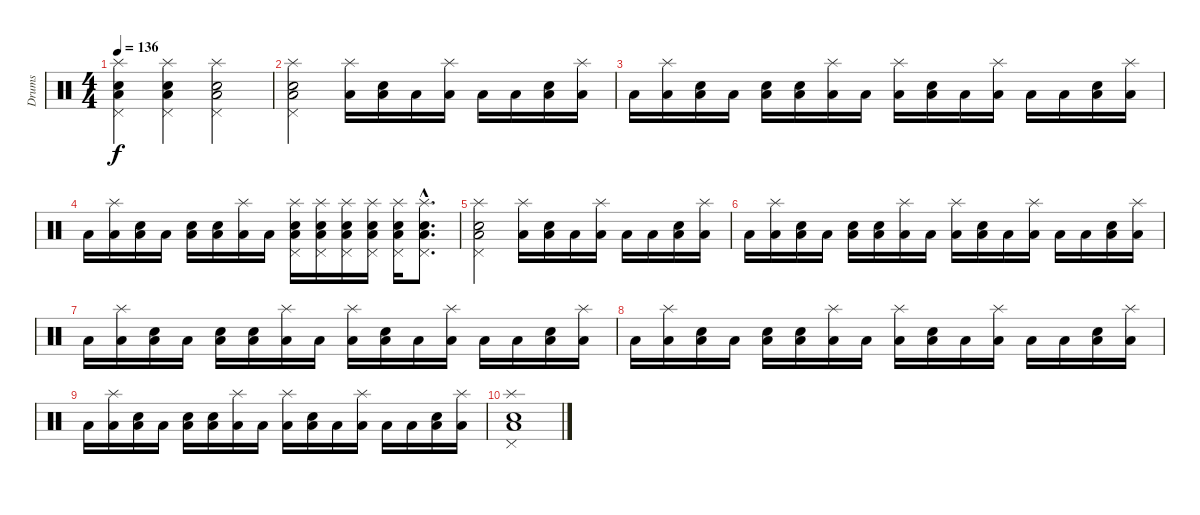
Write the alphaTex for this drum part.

\track ("Drums" "Drums") {instrument percussion}
\staff {score}
\articulation defaults
\ts (4 4)
\tempo 136
\clef neutral
\ks c
("Electric Snare (hit)" "Low Floor Tom (hit)" "Pedal Hi-Hat (hit)" "Splash (hit)").4{dy f} ("Electric Snare (hit)" "Low Floor Tom (hit)" "Pedal Hi-Hat (hit)" "Splash (hit)").4 ("Electric Snare (hit)" "Low Floor Tom (hit)" "Pedal Hi-Hat (hit)" "Splash (hit)").2 |
("Electric Snare (hit)" "Low Floor Tom (hit)" "Pedal Hi-Hat (hit)" "Splash (hit)").2 ("Low Floor Tom (hit)" "Splash (hit)").16 ("Electric Snare (hit)" "Low Floor Tom (hit)").16 "Low Floor Tom (hit)".16 ("Low Floor Tom (hit)" "Splash (hit)").16 "Low Floor Tom (hit)".16 "Low Floor Tom (hit)".16 ("Electric Snare (hit)" "Low Floor Tom (hit)").16 ("Low Floor Tom (hit)" "Splash (hit)").16 |
"Low Floor Tom (hit)".16 ("Low Floor Tom (hit)" "Splash (hit)").16 ("Electric Snare (hit)" "Low Floor Tom (hit)").16 "Low Floor Tom (hit)".16 ("Electric Snare (hit)" "Low Floor Tom (hit)").16 ("Electric Snare (hit)" "Low Floor Tom (hit)").16 ("Low Floor Tom (hit)" "Splash (hit)").16 "Low Floor Tom (hit)".16 ("Low Floor Tom (hit)" "Splash (hit)").16 ("Electric Snare (hit)" "Low Floor Tom (hit)").16 "Low Floor Tom (hit)".16 ("Low Floor Tom (hit)" "Splash (hit)").16 "Low Floor Tom (hit)".16 "Low Floor Tom (hit)".16 ("Electric Snare (hit)" "Low Floor Tom (hit)").16 ("Low Floor Tom (hit)" "Splash (hit)").16 |
"Low Floor Tom (hit)".16 ("Low Floor Tom (hit)" "Splash (hit)").16 ("Electric Snare (hit)" "Low Floor Tom (hit)").16 "Low Floor Tom (hit)".16 ("Electric Snare (hit)" "Low Floor Tom (hit)").16 ("Electric Snare (hit)" "Low Floor Tom (hit)").16 ("Low Floor Tom (hit)" "Splash (hit)").16 "Low Floor Tom (hit)".16 ("Electric Snare (hit)" "Low Floor Tom (hit)" "Pedal Hi-Hat (hit)" "Splash (hit)").16 ("Electric Snare (hit)" "Low Floor Tom (hit)" "Pedal Hi-Hat (hit)" "Splash (hit)").16 ("Electric Snare (hit)" "Low Floor Tom (hit)" "Pedal Hi-Hat (hit)" "Splash (hit)").16 ("Electric Snare (hit)" "Low Floor Tom (hit)" "Pedal Hi-Hat (hit)" "Splash (hit)").16 ("Electric Snare (hit)" "Low Floor Tom (hit)" "Pedal Hi-Hat (hit)" "Splash (hit)").16 ("Electric Snare (hit)"{hac} "Low Floor Tom (hit)"{hac} "Pedal Hi-Hat (hit)"{hac} "Splash (hit)"{hac}).8{d} |
("Electric Snare (hit)" "Low Floor Tom (hit)" "Pedal Hi-Hat (hit)" "Splash (hit)").2 ("Low Floor Tom (hit)" "Splash (hit)").16 ("Electric Snare (hit)" "Low Floor Tom (hit)").16 "Low Floor Tom (hit)".16 ("Low Floor Tom (hit)" "Splash (hit)").16 "Low Floor Tom (hit)".16 "Low Floor Tom (hit)".16 ("Electric Snare (hit)" "Low Floor Tom (hit)").16 ("Low Floor Tom (hit)" "Splash (hit)").16 |
"Low Floor Tom (hit)".16 ("Low Floor Tom (hit)" "Splash (hit)").16 ("Electric Snare (hit)" "Low Floor Tom (hit)").16 "Low Floor Tom (hit)".16 ("Electric Snare (hit)" "Low Floor Tom (hit)").16 ("Electric Snare (hit)" "Low Floor Tom (hit)").16 ("Low Floor Tom (hit)" "Splash (hit)").16 "Low Floor Tom (hit)".16 ("Low Floor Tom (hit)" "Splash (hit)").16 ("Electric Snare (hit)" "Low Floor Tom (hit)").16 "Low Floor Tom (hit)".16 ("Low Floor Tom (hit)" "Splash (hit)").16 "Low Floor Tom (hit)".16 "Low Floor Tom (hit)".16 ("Electric Snare (hit)" "Low Floor Tom (hit)").16 ("Low Floor Tom (hit)" "Splash (hit)").16 |
"Low Floor Tom (hit)".16 ("Low Floor Tom (hit)" "Splash (hit)").16 ("Electric Snare (hit)" "Low Floor Tom (hit)").16 "Low Floor Tom (hit)".16 ("Electric Snare (hit)" "Low Floor Tom (hit)").16 ("Electric Snare (hit)" "Low Floor Tom (hit)").16 ("Low Floor Tom (hit)" "Splash (hit)").16 "Low Floor Tom (hit)".16 ("Low Floor Tom (hit)" "Splash (hit)").16 ("Electric Snare (hit)" "Low Floor Tom (hit)").16 "Low Floor Tom (hit)".16 ("Low Floor Tom (hit)" "Splash (hit)").16 "Low Floor Tom (hit)".16 "Low Floor Tom (hit)".16 ("Electric Snare (hit)" "Low Floor Tom (hit)").16 ("Low Floor Tom (hit)" "Splash (hit)").16 |
"Low Floor Tom (hit)".16 ("Low Floor Tom (hit)" "Splash (hit)").16 ("Electric Snare (hit)" "Low Floor Tom (hit)").16 "Low Floor Tom (hit)".16 ("Electric Snare (hit)" "Low Floor Tom (hit)").16 ("Electric Snare (hit)" "Low Floor Tom (hit)").16 ("Low Floor Tom (hit)" "Splash (hit)").16 "Low Floor Tom (hit)".16 ("Low Floor Tom (hit)" "Splash (hit)").16 ("Electric Snare (hit)" "Low Floor Tom (hit)").16 "Low Floor Tom (hit)".16 ("Low Floor Tom (hit)" "Splash (hit)").16 "Low Floor Tom (hit)".16 "Low Floor Tom (hit)".16 ("Electric Snare (hit)" "Low Floor Tom (hit)").16 ("Low Floor Tom (hit)" "Splash (hit)").16 |
"Low Floor Tom (hit)".16 ("Low Floor Tom (hit)" "Splash (hit)").16 ("Electric Snare (hit)" "Low Floor Tom (hit)").16 "Low Floor Tom (hit)".16 ("Electric Snare (hit)" "Low Floor Tom (hit)").16 ("Electric Snare (hit)" "Low Floor Tom (hit)").16 ("Low Floor Tom (hit)" "Splash (hit)").16 "Low Floor Tom (hit)".16 ("Low Floor Tom (hit)" "Splash (hit)").16 ("Electric Snare (hit)" "Low Floor Tom (hit)").16 "Low Floor Tom (hit)".16 ("Low Floor Tom (hit)" "Splash (hit)").16 "Low Floor Tom (hit)".16 "Low Floor Tom (hit)".16 ("Electric Snare (hit)" "Low Floor Tom (hit)").16 ("Low Floor Tom (hit)" "Splash (hit)").16 |
("Electric Snare (hit)" "Low Floor Tom (hit)" "Pedal Hi-Hat (hit)" "Splash (hit)").1
